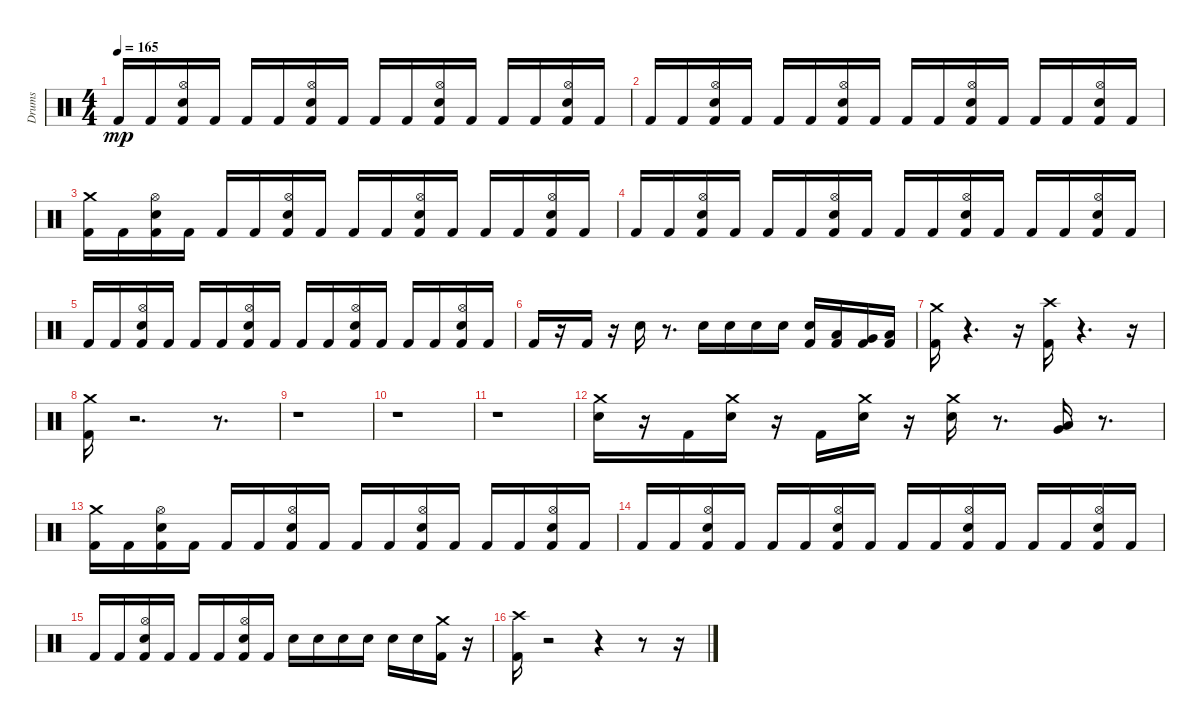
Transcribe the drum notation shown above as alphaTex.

\track ("Drums" "Drums") {instrument percussion}
\staff {score}
\articulation defaults
\ts (4 4)
\tempo 165
\clef neutral
\ks c "Kick (hit) 2".16{dy mp} "Kick (hit) 2".16
("Hi-Hat (open)" "Kick (hit) 2" "Electric Snare (hit)").16 "Kick (hit) 2".16 "Kick (hit) 2".16 "Kick (hit) 2".16 ("Kick (hit) 2" "Hi-Hat (open)" "Electric Snare (hit)").16 "Kick (hit) 2".16 "Kick (hit) 2".16 "Kick (hit) 2".16 ("Electric Snare (hit)" "Hi-Hat (open)" "Kick (hit) 2").16 "Kick (hit) 2".16 "Kick (hit) 2".16 "Kick (hit) 2".16 ("Electric Snare (hit)" "Kick (hit) 2" "Hi-Hat (open)").16 "Kick (hit) 2".16 |
"Kick (hit) 2".16 "Kick (hit) 2".16 ("Kick (hit) 2" "Electric Snare (hit)" "Hi-Hat (open)").16 "Kick (hit) 2".16 "Kick (hit) 2".16 "Kick (hit) 2".16 ("Hi-Hat (open)" "Kick (hit) 2" "Electric Snare (hit)").16 "Kick (hit) 2".16 "Kick (hit) 2".16 "Kick (hit) 2".16 ("Kick (hit) 2" "Electric Snare (hit)" "Hi-Hat (open)").16 "Kick (hit) 2".16 "Kick (hit) 2".16 "Kick (hit) 2".16 ("Electric Snare (hit)" "Hi-Hat (open)" "Kick (hit) 2").16 "Kick (hit) 2".16 |
("Kick (hit) 2" "Crash medium (hit)").16 "Kick (hit) 2".16 ("Electric Snare (hit)" "Kick (hit) 2" "Hi-Hat (open)").16 "Kick (hit) 2".16 "Kick (hit) 2".16 "Kick (hit) 2".16 ("Hi-Hat (open)" "Kick (hit) 2" "Electric Snare (hit)").16 "Kick (hit) 2".16 "Kick (hit) 2".16 "Kick (hit) 2".16 ("Electric Snare (hit)" "Hi-Hat (open)" "Kick (hit) 2").16 "Kick (hit) 2".16 "Kick (hit) 2".16 "Kick (hit) 2".16 ("Kick (hit) 2" "Hi-Hat (open)" "Electric Snare (hit)").16 "Kick (hit) 2".16 |
"Kick (hit) 2".16 "Kick (hit) 2".16 ("Electric Snare (hit)" "Hi-Hat (open)" "Kick (hit) 2").16 "Kick (hit) 2".16 "Kick (hit) 2".16 "Kick (hit) 2".16 ("Hi-Hat (open)" "Electric Snare (hit)" "Kick (hit) 2").16 "Kick (hit) 2".16 "Kick (hit) 2".16 "Kick (hit) 2".16 ("Electric Snare (hit)" "Kick (hit) 2" "Hi-Hat (open)").16 "Kick (hit) 2".16 "Kick (hit) 2".16 "Kick (hit) 2".16 ("Hi-Hat (open)" "Electric Snare (hit)" "Kick (hit) 2").16 "Kick (hit) 2".16 |
"Kick (hit) 2".16 "Kick (hit) 2".16 ("Hi-Hat (open)" "Kick (hit) 2" "Electric Snare (hit)").16 "Kick (hit) 2".16 "Kick (hit) 2".16 "Kick (hit) 2".16 ("Kick (hit) 2" "Electric Snare (hit)" "Hi-Hat (open)").16 "Kick (hit) 2".16 "Kick (hit) 2".16 "Kick (hit) 2".16 ("Hi-Hat (open)" "Electric Snare (hit)" "Kick (hit) 2").16 "Kick (hit) 2".16 "Kick (hit) 2".16 "Kick (hit) 2".16 ("Hi-Hat (open)" "Kick (hit) 2" "Electric Snare (hit)").16 "Kick (hit) 2".16 |
"Kick (hit) 2".16 r.16 "Kick (hit) 2".16 r.16 "Electric Snare (hit)".16 r.8{d} "Electric Snare (hit)".16 "Electric Snare (hit)".16 "Electric Snare (hit)".16 "Electric Snare (hit)".16 ("Electric Snare (hit)" "Kick (hit) 2").16 ("Low Tom (hit)" "Kick (hit) 2").16 ("Very Low Tom (hit)" "Kick (hit) 2").16 ("Kick (hit) 2" "Low Floor Tom (hit)").16 |
("Kick (hit) 2" "Crash medium (hit)").16 r.4{d} r.16 ("Kick (hit) 2" "Crash high (hit)").16 r.4{d} r.16 |
("Crash medium (hit)" "Kick (hit) 2").16 r.2{d} r.8{d} |
r.1 |
r.1 |
r.1 |
("Crash medium (hit)" "Electric Snare (hit)").16 r.16 "Kick (hit) 2".16 ("Electric Snare (hit)" "Crash medium (hit)").16 r.16 "Kick (hit) 2".16 ("Crash medium (hit)" "Electric Snare (hit)").16 r.16 ("Electric Snare (hit)" "Crash medium (hit)").16 r.8{d} ("Very Low Tom (hit)" "Low Floor Tom (hit)").16 r.8{d} |
("Crash medium (hit)" "Kick (hit) 2").16 "Kick (hit) 2".16 ("Electric Snare (hit)" "Kick (hit) 2" "Hi-Hat (open)").16 "Kick (hit) 2".16 "Kick (hit) 2".16 "Kick (hit) 2".16 ("Electric Snare (hit)" "Kick (hit) 2" "Hi-Hat (open)").16 "Kick (hit) 2".16 "Kick (hit) 2".16 "Kick (hit) 2".16 ("Kick (hit) 2" "Hi-Hat (open)" "Electric Snare (hit)").16 "Kick (hit) 2".16 "Kick (hit) 2".16 "Kick (hit) 2".16 ("Kick (hit) 2" "Hi-Hat (open)" "Electric Snare (hit)").16 "Kick (hit) 2".16 |
"Kick (hit) 2".16 "Kick (hit) 2".16 ("Hi-Hat (open)" "Kick (hit) 2" "Electric Snare (hit)").16 "Kick (hit) 2".16 "Kick (hit) 2".16 "Kick (hit) 2".16 ("Electric Snare (hit)" "Hi-Hat (open)" "Kick (hit) 2").16 "Kick (hit) 2".16 "Kick (hit) 2".16 "Kick (hit) 2".16 ("Kick (hit) 2" "Electric Snare (hit)" "Hi-Hat (open)").16 "Kick (hit) 2".16 "Kick (hit) 2".16 "Kick (hit) 2".16 ("Kick (hit) 2" "Hi-Hat (open)" "Electric Snare (hit)").16 "Kick (hit) 2".16 |
"Kick (hit) 2".16 "Kick (hit) 2".16 ("Hi-Hat (open)" "Kick (hit) 2" "Electric Snare (hit)").16 "Kick (hit) 2".16 "Kick (hit) 2".16 "Kick (hit) 2".16 ("Hi-Hat (open)" "Kick (hit) 2" "Electric Snare (hit)").16 "Kick (hit) 2".16 "Electric Snare (hit)".16 "Electric Snare (hit)".16 "Electric Snare (hit)".16 "Electric Snare (hit)".16 "Electric Snare (hit)".16 "Electric Snare (hit)".16 ("Crash medium (hit)" "Kick (hit) 2").16 r.16 |
("Crash high (hit)" "Kick (hit) 2").16 r.2 r.4 r.8 r.16
